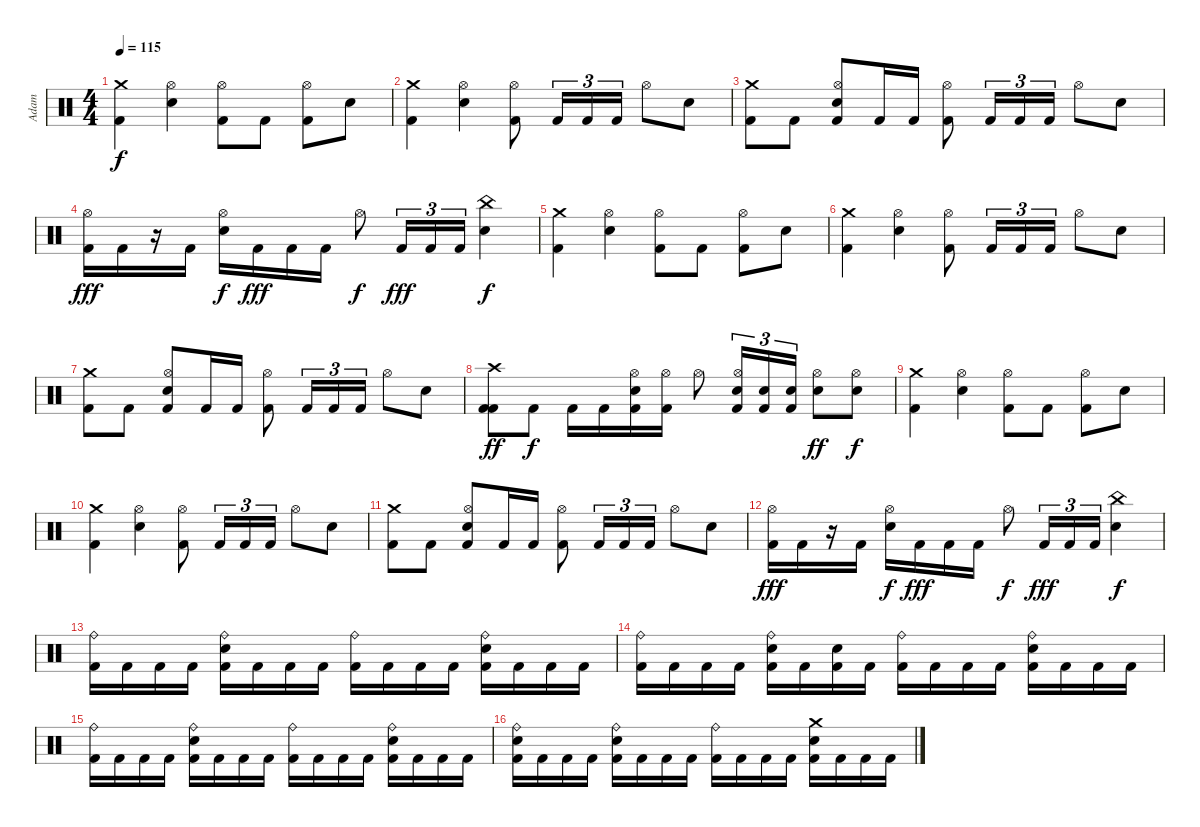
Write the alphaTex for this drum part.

\track ("Adam" "Adam") {instrument percussion}
\staff {score}
\articulation defaults
\ts (4 4)
\tempo 115
\clef neutral
\ks c
("Crash medium (hit)" "Kick (hit) 2").4{dy f} ("Hi-Hat (open)" "Electric Snare (hit)").4 ("Hi-Hat (open)" "Kick (hit) 2").8 "Kick (hit) 2".8 ("Hi-Hat (open)" "Kick (hit) 2").8 "Electric Snare (hit)".8 |
("Crash medium (hit)" "Kick (hit) 2").4 ("Hi-Hat (open)" "Electric Snare (hit)").4 ("Hi-Hat (open)" "Kick (hit) 2").8 "Kick (hit) 2".16{tu (3 2)} "Kick (hit) 2".16{tu (3 2)} "Kick (hit) 2".16{tu (3 2)} "Hi-Hat (open)".8 "Electric Snare (hit)".8 |
("Crash medium (hit)" "Kick (hit) 2").8 "Kick (hit) 2".8 ("Hi-Hat (open)" "Electric Snare (hit)" "Kick (hit) 2").8 "Kick (hit) 2".16 "Kick (hit) 2".16 ("Hi-Hat (open)" "Kick (hit) 2").8 "Kick (hit) 2".16{tu (3 2)} "Kick (hit) 2".16{tu (3 2)} "Kick (hit) 2".16{tu (3 2)} "Hi-Hat (open)".8 "Electric Snare (hit)".8 |
("Hi-Hat (open)" "Kick (hit) 2").16{dy fff} "Kick (hit) 2".16 r.16 "Kick (hit) 2".16 ("Hi-Hat (open)" "Electric Snare (hit)").16{dy f} "Kick (hit) 2".16{dy fff} "Kick (hit) 2".16 "Kick (hit) 2".16 "Hi-Hat (open)".8{dy f} "Kick (hit) 2".16{tu (3 2) dy fff} "Kick (hit) 2".16{tu (3 2)} "Kick (hit) 2".16{tu (3 2)} ("China (hit)" "Snare (hit) 2").4{dy f} |
("Crash medium (hit)" "Kick (hit) 2").4 ("Hi-Hat (open)" "Electric Snare (hit)").4 ("Hi-Hat (open)" "Kick (hit) 2").8 "Kick (hit) 2".8 ("Hi-Hat (open)" "Kick (hit) 2").8 "Electric Snare (hit)".8 |
("Crash medium (hit)" "Kick (hit) 2").4 ("Hi-Hat (open)" "Electric Snare (hit)").4 ("Hi-Hat (open)" "Kick (hit) 2").8 "Kick (hit) 2".16{tu (3 2)} "Kick (hit) 2".16{tu (3 2)} "Kick (hit) 2".16{tu (3 2)} "Hi-Hat (open)".8 "Electric Snare (hit)".8 |
("Crash medium (hit)" "Kick (hit) 2").8 "Kick (hit) 2".8 ("Hi-Hat (open)" "Electric Snare (hit)" "Kick (hit) 2").8 "Kick (hit) 2".16 "Kick (hit) 2".16 ("Hi-Hat (open)" "Kick (hit) 2").8 "Kick (hit) 2".16{tu (3 2)} "Kick (hit) 2".16{tu (3 2)} "Kick (hit) 2".16{tu (3 2)} "Hi-Hat (open)".8 "Electric Snare (hit)".8 |
("Crash high (hit)" "Kick (hit) 2" "Kick (hit) 2").8{dy ff} "Kick (hit) 2".8{dy f} "Kick (hit) 2".16 "Kick (hit) 2".16 ("Hi-Hat (open)" "Electric Snare (hit)" "Kick (hit) 2").16 ("Hi-Hat (open)" "Kick (hit) 2").16 "Hi-Hat (open)".8 ("Hi-Hat (open)" "Electric Snare (hit)" "Kick (hit) 2").16{tu (3 2)} ("Electric Snare (hit)" "Kick (hit) 2").16{tu (3 2)} ("Electric Snare (hit)" "Kick (hit) 2").16{tu (3 2)} ("Hi-Hat (open)" "Electric Snare (hit)").8{dy ff} ("Hi-Hat (open)" "Electric Snare (hit)").8{dy f} |
("Crash medium (hit)" "Kick (hit) 2").4 ("Hi-Hat (open)" "Electric Snare (hit)").4 ("Hi-Hat (open)" "Kick (hit) 2").8 "Kick (hit) 2".8 ("Hi-Hat (open)" "Kick (hit) 2").8 "Electric Snare (hit)".8 |
("Crash medium (hit)" "Kick (hit) 2").4 ("Hi-Hat (open)" "Electric Snare (hit)").4 ("Hi-Hat (open)" "Kick (hit) 2").8 "Kick (hit) 2".16{tu (3 2)} "Kick (hit) 2".16{tu (3 2)} "Kick (hit) 2".16{tu (3 2)} "Hi-Hat (open)".8 "Electric Snare (hit)".8 |
("Crash medium (hit)" "Kick (hit) 2").8 "Kick (hit) 2".8 ("Hi-Hat (open)" "Electric Snare (hit)" "Kick (hit) 2").8 "Kick (hit) 2".16 "Kick (hit) 2".16 ("Hi-Hat (open)" "Kick (hit) 2").8 "Kick (hit) 2".16{tu (3 2)} "Kick (hit) 2".16{tu (3 2)} "Kick (hit) 2".16{tu (3 2)} "Hi-Hat (open)".8 "Electric Snare (hit)".8 |
("Hi-Hat (open)" "Kick (hit) 2").16{dy fff} "Kick (hit) 2".16 r.16 "Kick (hit) 2".16 ("Hi-Hat (open)" "Electric Snare (hit)").16{dy f} "Kick (hit) 2".16{dy fff} "Kick (hit) 2".16 "Kick (hit) 2".16 "Hi-Hat (open)".8{dy f} "Kick (hit) 2".16{tu (3 2) dy fff} "Kick (hit) 2".16{tu (3 2)} "Kick (hit) 2".16{tu (3 2)} ("China (hit)" "Snare (hit) 2").4{dy f} |
("Ride (bell)" "Kick (hit) 2").16 "Kick (hit) 2".16 "Kick (hit) 2".16 "Kick (hit) 2".16 ("Ride (bell)" "Electric Snare (hit)" "Kick (hit) 2").16 "Kick (hit) 2".16 "Kick (hit) 2".16 "Kick (hit) 2".16 ("Ride (bell)" "Kick (hit) 2").16 "Kick (hit) 2".16 "Kick (hit) 2".16 "Kick (hit) 2".16 ("Ride (bell)" "Electric Snare (hit)" "Kick (hit) 2").16 "Kick (hit) 2".16 "Kick (hit) 2".16 "Kick (hit) 2".16 |
("Ride (bell)" "Kick (hit) 2").16 "Kick (hit) 2".16 "Kick (hit) 2".16 "Kick (hit) 2".16 ("Ride (bell)" "Snare (hit) 2" "Kick (hit) 2").16 "Kick (hit) 2".16 ("Snare (hit) 2" "Kick (hit) 2").16 "Kick (hit) 2".16 ("Ride (bell)" "Kick (hit) 2").16 "Kick (hit) 2".16 "Kick (hit) 2".16 "Kick (hit) 2".16 ("Ride (bell)" "Electric Snare (hit)" "Kick (hit) 2").16 "Kick (hit) 2".16 "Kick (hit) 2".16 "Kick (hit) 2".16 |
("Ride (bell)" "Kick (hit) 2").16 "Kick (hit) 2".16 "Kick (hit) 2".16 "Kick (hit) 2".16 ("Ride (bell)" "Electric Snare (hit)" "Kick (hit) 2").16 "Kick (hit) 2".16 "Kick (hit) 2".16 "Kick (hit) 2".16 ("Ride (bell)" "Kick (hit) 2").16 "Kick (hit) 2".16 "Kick (hit) 2".16 "Kick (hit) 2".16 ("Ride (bell)" "Electric Snare (hit)" "Kick (hit) 2").16 "Kick (hit) 2".16 "Kick (hit) 2".16 "Kick (hit) 2".16 |
("Ride (bell)" "Snare (hit) 2" "Kick (hit) 2").16 "Kick (hit) 2".16 "Kick (hit) 2".16 "Kick (hit) 2".16 ("Ride (bell)" "Electric Snare (hit)" "Kick (hit) 2").16 "Kick (hit) 2".16 "Kick (hit) 2".16 "Kick (hit) 2".16 ("Ride (bell)" "Kick (hit) 2").16 "Kick (hit) 2".16 "Kick (hit) 2".16 "Kick (hit) 2".16 ("Crash medium (hit)" "Snare (hit) 2" "Kick (hit) 2").16 "Kick (hit) 2".16 "Kick (hit) 2".16 "Kick (hit) 2".16
